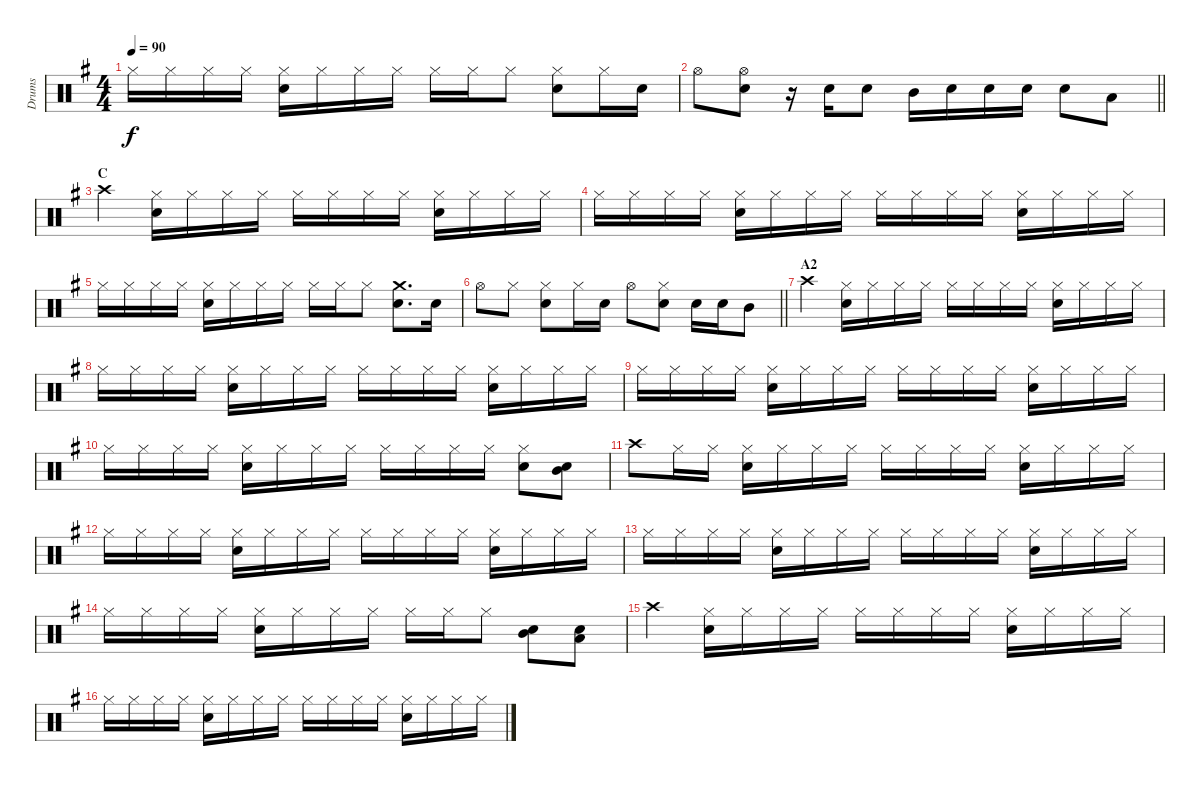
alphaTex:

\track ("Drums" "Drums") {instrument percussion}
\staff {score}
\articulation defaults
\ts (4 4)
\tempo 90
\clef neutral
\ks g "Hi-Hat (closed)".16{dy f} "Hi-Hat (closed)".16 "Hi-Hat (closed)".16 "Hi-Hat (closed)".16
("Hi-Hat (closed)" "Snare (hit) 2").16 "Hi-Hat (closed)".16 "Hi-Hat (closed)".16 "Hi-Hat (closed)".16 "Hi-Hat (closed)".16 "Hi-Hat (closed)".16 "Hi-Hat (closed)".8 ("Hi-Hat (closed)" "Snare (hit) 2").8 "Hi-Hat (closed)".16 "Snare (hit) 2".16 |
\barLineRight lightlight "Hi-Hat (open)".8
("Hi-Hat (open)" "Snare (hit) 2").8 r.16 "Snare (hit) 2".16 "Snare (hit) 2".8 "Mid Tom (hit)".16 "Snare (hit) 2".16 "Snare (hit) 2".16 "Snare (hit) 2".16 "Snare (hit) 2".8 "Low Tom (hit)".8 |
\section ("" "C")
"Crash high (hit)".4 ("Hi-Hat (closed)" "Snare (hit) 2").16 "Hi-Hat (closed)".16 "Hi-Hat (closed)".16 "Hi-Hat (closed)".16 "Hi-Hat (closed)".16 "Hi-Hat (closed)".16 "Hi-Hat (closed)".16 "Hi-Hat (closed)".16 ("Hi-Hat (closed)" "Snare (hit) 2").16 "Hi-Hat (closed)".16 "Hi-Hat (closed)".16 "Hi-Hat (closed)".16 |
"Hi-Hat (closed)".16 "Hi-Hat (closed)".16 "Hi-Hat (closed)".16 "Hi-Hat (closed)".16 ("Hi-Hat (closed)" "Snare (hit) 2").16 "Hi-Hat (closed)".16 "Hi-Hat (closed)".16 "Hi-Hat (closed)".16 "Hi-Hat (closed)".16 "Hi-Hat (closed)".16 "Hi-Hat (closed)".16 "Hi-Hat (closed)".16 ("Hi-Hat (closed)" "Snare (hit) 2").16 "Hi-Hat (closed)".16 "Hi-Hat (closed)".16 "Hi-Hat (closed)".16 |
"Hi-Hat (closed)".16 "Hi-Hat (closed)".16 "Hi-Hat (closed)".16 "Hi-Hat (closed)".16 ("Hi-Hat (closed)" "Snare (hit) 2").16 "Hi-Hat (closed)".16 "Hi-Hat (closed)".16 "Hi-Hat (closed)".16 "Hi-Hat (closed)".16 "Hi-Hat (closed)".16 "Hi-Hat (closed)".8 ("Crash medium (hit)" "Snare (hit) 2").8{d} "Snare (hit) 2".16 |
\barLineRight lightlight "Hi-Hat (open)".8 "Hi-Hat (closed)".8
("Hi-Hat (closed)" "Snare (hit) 2").8 "Hi-Hat (closed)".16 "Snare (hit) 2".16 "Hi-Hat (open)".8 ("Hi-Hat (closed)" "Snare (hit) 2").8 "Snare (hit) 2".16 "Snare (hit) 2".16 "Mid Tom (hit)".8 |
\section ("" "A2")
"Crash high (hit)".4 ("Hi-Hat (closed)" "Snare (hit) 2").16 "Hi-Hat (closed)".16 "Hi-Hat (closed)".16 "Hi-Hat (closed)".16 "Hi-Hat (closed)".16 "Hi-Hat (closed)".16 "Hi-Hat (closed)".16 "Hi-Hat (closed)".16 ("Hi-Hat (closed)" "Snare (hit) 2").16 "Hi-Hat (closed)".16 "Hi-Hat (closed)".16 "Hi-Hat (closed)".16 |
"Hi-Hat (closed)".16 "Hi-Hat (closed)".16 "Hi-Hat (closed)".16 "Hi-Hat (closed)".16 ("Hi-Hat (closed)" "Snare (hit) 2").16 "Hi-Hat (closed)".16 "Hi-Hat (closed)".16 "Hi-Hat (closed)".16 "Hi-Hat (closed)".16 "Hi-Hat (closed)".16 "Hi-Hat (closed)".16 "Hi-Hat (closed)".16 ("Hi-Hat (closed)" "Snare (hit) 2").16 "Hi-Hat (closed)".16 "Hi-Hat (closed)".16 "Hi-Hat (closed)".16 |
"Hi-Hat (closed)".16 "Hi-Hat (closed)".16 "Hi-Hat (closed)".16 "Hi-Hat (closed)".16 ("Hi-Hat (closed)" "Snare (hit) 2").16 "Hi-Hat (closed)".16 "Hi-Hat (closed)".16 "Hi-Hat (closed)".16 "Hi-Hat (closed)".16 "Hi-Hat (closed)".16 "Hi-Hat (closed)".16 "Hi-Hat (closed)".16 ("Hi-Hat (closed)" "Snare (hit) 2").16 "Hi-Hat (closed)".16 "Hi-Hat (closed)".16 "Hi-Hat (closed)".16 |
"Hi-Hat (closed)".16 "Hi-Hat (closed)".16 "Hi-Hat (closed)".16 "Hi-Hat (closed)".16 ("Hi-Hat (closed)" "Snare (hit) 2").16 "Hi-Hat (closed)".16 "Hi-Hat (closed)".16 "Hi-Hat (closed)".16 "Hi-Hat (closed)".16 "Hi-Hat (closed)".16 "Hi-Hat (closed)".16 "Hi-Hat (closed)".16 ("Hi-Hat (closed)" "Snare (hit) 2").8 ("Mid Tom (hit)" "Snare (hit) 2").8 |
"Crash high (hit)".8 "Hi-Hat (closed)".16 "Hi-Hat (closed)".16 ("Hi-Hat (closed)" "Snare (hit) 2").16 "Hi-Hat (closed)".16 "Hi-Hat (closed)".16 "Hi-Hat (closed)".16 "Hi-Hat (closed)".16 "Hi-Hat (closed)".16 "Hi-Hat (closed)".16 "Hi-Hat (closed)".16 ("Hi-Hat (closed)" "Snare (hit) 2").16 "Hi-Hat (closed)".16 "Hi-Hat (closed)".16 "Hi-Hat (closed)".16 |
"Hi-Hat (closed)".16 "Hi-Hat (closed)".16 "Hi-Hat (closed)".16 "Hi-Hat (closed)".16 ("Hi-Hat (closed)" "Snare (hit) 2").16 "Hi-Hat (closed)".16 "Hi-Hat (closed)".16 "Hi-Hat (closed)".16 "Hi-Hat (closed)".16 "Hi-Hat (closed)".16 "Hi-Hat (closed)".16 "Hi-Hat (closed)".16 ("Hi-Hat (closed)" "Snare (hit) 2").16 "Hi-Hat (closed)".16 "Hi-Hat (closed)".16 "Hi-Hat (closed)".16 |
"Hi-Hat (closed)".16 "Hi-Hat (closed)".16 "Hi-Hat (closed)".16 "Hi-Hat (closed)".16 ("Hi-Hat (closed)" "Snare (hit) 2").16 "Hi-Hat (closed)".16 "Hi-Hat (closed)".16 "Hi-Hat (closed)".16 "Hi-Hat (closed)".16 "Hi-Hat (closed)".16 "Hi-Hat (closed)".16 "Hi-Hat (closed)".16 ("Hi-Hat (closed)" "Snare (hit) 2").16 "Hi-Hat (closed)".16 "Hi-Hat (closed)".16 "Hi-Hat (closed)".16 |
"Hi-Hat (closed)".16 "Hi-Hat (closed)".16 "Hi-Hat (closed)".16 "Hi-Hat (closed)".16 ("Hi-Hat (closed)" "Snare (hit) 2").16 "Hi-Hat (closed)".16 "Hi-Hat (closed)".16 "Hi-Hat (closed)".16 "Hi-Hat (closed)".16 "Hi-Hat (closed)".16 "Hi-Hat (closed)".8 ("Mid Tom (hit)" "Snare (hit) 2").8 ("Low Tom (hit)" "Snare (hit) 2").8 |
"Crash high (hit)".4 ("Hi-Hat (closed)" "Snare (hit) 2").16 "Hi-Hat (closed)".16 "Hi-Hat (closed)".16 "Hi-Hat (closed)".16 "Hi-Hat (closed)".16 "Hi-Hat (closed)".16 "Hi-Hat (closed)".16 "Hi-Hat (closed)".16 ("Hi-Hat (closed)" "Snare (hit) 2").16 "Hi-Hat (closed)".16 "Hi-Hat (closed)".16 "Hi-Hat (closed)".16 |
"Hi-Hat (closed)".16 "Hi-Hat (closed)".16 "Hi-Hat (closed)".16 "Hi-Hat (closed)".16 ("Hi-Hat (closed)" "Snare (hit) 2").16 "Hi-Hat (closed)".16 "Hi-Hat (closed)".16 "Hi-Hat (closed)".16 "Hi-Hat (closed)".16 "Hi-Hat (closed)".16 "Hi-Hat (closed)".16 "Hi-Hat (closed)".16 ("Hi-Hat (closed)" "Snare (hit) 2").16 "Hi-Hat (closed)".16 "Hi-Hat (closed)".16 "Hi-Hat (closed)".16
